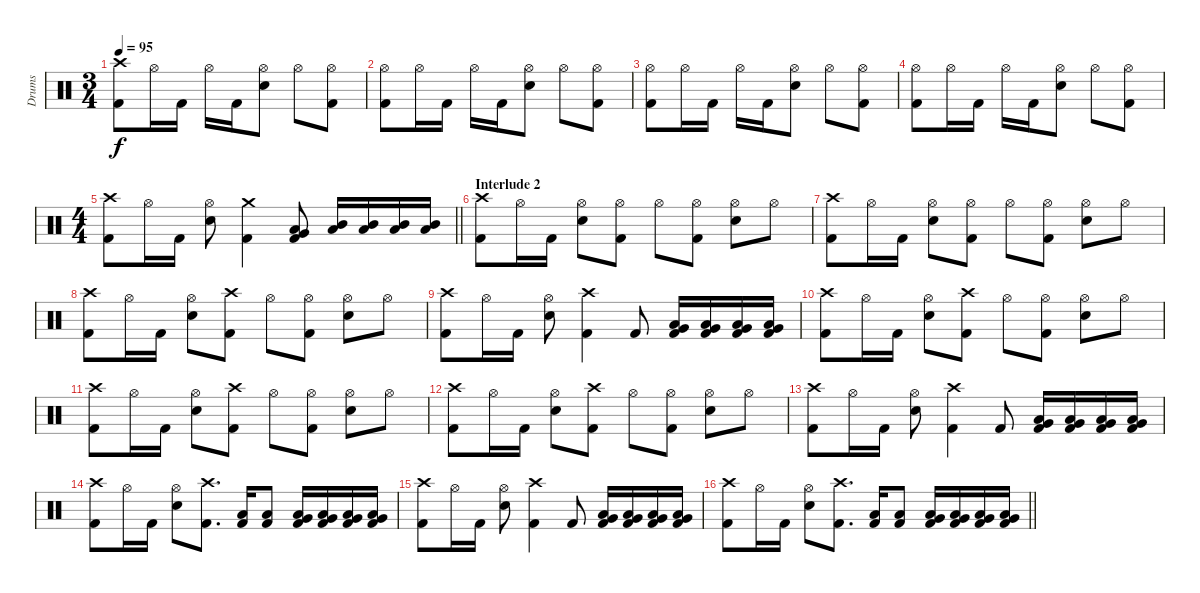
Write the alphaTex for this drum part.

\track ("Drums" "Drums") {instrument percussion}
\staff {score}
\articulation defaults
\ts (3 4)
\tempo 95
\clef neutral
\ks c
("Crash high (hit)" "Kick (hit) 2").8{dy f} "Hi-Hat (open)".16 "Kick (hit) 2".16 "Hi-Hat (open)".16 "Kick (hit) 2".16 ("Hi-Hat (open)" "Electric Snare (hit)").8 "Hi-Hat (open)".8 ("Hi-Hat (open)" "Kick (hit) 2").8 |
("Hi-Hat (open)" "Kick (hit) 2").8 "Hi-Hat (open)".16 "Kick (hit) 2".16 "Hi-Hat (open)".16 "Kick (hit) 2".16 ("Hi-Hat (open)" "Electric Snare (hit)").8 "Hi-Hat (open)".8 ("Hi-Hat (open)" "Kick (hit) 2").8 |
("Hi-Hat (open)" "Kick (hit) 2").8 "Hi-Hat (open)".16 "Kick (hit) 2".16 "Hi-Hat (open)".16 "Kick (hit) 2".16 ("Hi-Hat (open)" "Electric Snare (hit)").8 "Hi-Hat (open)".8 ("Hi-Hat (open)" "Kick (hit) 2").8 |
("Hi-Hat (open)" "Kick (hit) 2").8 "Hi-Hat (open)".16 "Kick (hit) 2".16 "Hi-Hat (open)".16 "Kick (hit) 2".16 ("Hi-Hat (open)" "Electric Snare (hit)").8 "Hi-Hat (open)".8 ("Hi-Hat (open)" "Kick (hit) 2").8 |
\ts (4 4)
\barLineRight lightlight
("Crash high (hit)" "Kick (hit) 2").8 "Hi-Hat (open)".16 "Kick (hit) 2".16 ("Hi-Hat (open)" "Electric Snare (hit)").8 ("Crash medium (hit)" "Kick (hit) 2").4 ("Low Tom (hit)" "Very Low Tom (hit)" "Kick (hit) 2").8 ("Mid Tom (hit)" "Low Tom (hit)").16 ("Mid Tom (hit)" "Low Tom (hit)").16 ("Mid Tom (hit)" "Low Tom (hit)").16 ("Mid Tom (hit)" "Low Tom (hit)").16 |
\section ("" "Interlude 2")
("Crash high (hit)" "Kick (hit) 2").8 "Hi-Hat (open)".16 "Kick (hit) 2".16 ("Electric Snare (hit)" "Hi-Hat (open)").8 ("Hi-Hat (open)" "Kick (hit) 2").8 "Hi-Hat (open)".8 ("Hi-Hat (open)" "Kick (hit) 2").8 ("Electric Snare (hit)" "Hi-Hat (open)").8 "Hi-Hat (open)".8 |
("Crash high (hit)" "Kick (hit) 2").8 "Hi-Hat (open)".16 "Kick (hit) 2".16 ("Electric Snare (hit)" "Hi-Hat (open)").8 ("Hi-Hat (open)" "Kick (hit) 2").8 "Hi-Hat (open)".8 ("Hi-Hat (open)" "Kick (hit) 2").8 ("Electric Snare (hit)" "Hi-Hat (open)").8 "Hi-Hat (open)".8 |
("Crash high (hit)" "Kick (hit) 2").8 "Hi-Hat (open)".16 "Kick (hit) 2".16 ("Electric Snare (hit)" "Hi-Hat (open)").8 ("Crash high (hit)" "Kick (hit) 2").8 "Hi-Hat (open)".8 ("Hi-Hat (open)" "Kick (hit) 2").8 ("Electric Snare (hit)" "Hi-Hat (open)").8 "Hi-Hat (open)".8 |
("Crash high (hit)" "Kick (hit) 2").8 "Hi-Hat (open)".16 "Kick (hit) 2".16 ("Electric Snare (hit)" "Hi-Hat (open)").8 ("Crash high (hit)" "Kick (hit) 2").4 "Kick (hit) 2".8 ("Low Tom (hit)" "Very Low Tom (hit)" "Kick (hit) 2").16 ("Low Tom (hit)" "Very Low Tom (hit)" "Kick (hit) 2").16 ("Low Tom (hit)" "Very Low Tom (hit)" "Kick (hit) 2").16 ("Low Tom (hit)" "Very Low Tom (hit)" "Kick (hit) 2").16 |
("Crash high (hit)" "Kick (hit) 2").8 "Hi-Hat (open)".16 "Kick (hit) 2".16 ("Electric Snare (hit)" "Hi-Hat (open)").8 ("Crash high (hit)" "Kick (hit) 2").8 "Hi-Hat (open)".8 ("Hi-Hat (open)" "Kick (hit) 2").8 ("Electric Snare (hit)" "Hi-Hat (open)").8 "Hi-Hat (open)".8 |
("Crash high (hit)" "Kick (hit) 2").8 "Hi-Hat (open)".16 "Kick (hit) 2".16 ("Electric Snare (hit)" "Hi-Hat (open)").8 ("Crash high (hit)" "Kick (hit) 2").8 "Hi-Hat (open)".8 ("Hi-Hat (open)" "Kick (hit) 2").8 ("Electric Snare (hit)" "Hi-Hat (open)").8 "Hi-Hat (open)".8 |
("Crash high (hit)" "Kick (hit) 2").8 "Hi-Hat (open)".16 "Kick (hit) 2".16 ("Electric Snare (hit)" "Hi-Hat (open)").8 ("Crash high (hit)" "Kick (hit) 2").8 "Hi-Hat (open)".8 ("Hi-Hat (open)" "Kick (hit) 2").8 ("Electric Snare (hit)" "Hi-Hat (open)").8 "Hi-Hat (open)".8 |
("Crash high (hit)" "Kick (hit) 2").8 "Hi-Hat (open)".16 "Kick (hit) 2".16 ("Electric Snare (hit)" "Hi-Hat (open)").8 ("Crash high (hit)" "Kick (hit) 2").4 "Kick (hit) 2".8 ("Low Tom (hit)" "Very Low Tom (hit)" "Kick (hit) 2").16 ("Low Tom (hit)" "Very Low Tom (hit)" "Kick (hit) 2").16 ("Low Tom (hit)" "Very Low Tom (hit)" "Kick (hit) 2").16 ("Low Tom (hit)" "Very Low Tom (hit)" "Kick (hit) 2").16 |
("Crash high (hit)" "Kick (hit) 2").8 "Hi-Hat (open)".16 "Kick (hit) 2".16 ("Electric Snare (hit)" "Hi-Hat (open)").8 ("Crash high (hit)" "Kick (hit) 2").8{d} ("Low Tom (hit)" "Kick (hit) 2").16 ("Low Tom (hit)" "Kick (hit) 2").8 ("Low Tom (hit)" "Very Low Tom (hit)" "Kick (hit) 2").16 ("Low Tom (hit)" "Very Low Tom (hit)" "Kick (hit) 2").16 ("Low Tom (hit)" "Very Low Tom (hit)" "Kick (hit) 2").16 ("Low Tom (hit)" "Very Low Tom (hit)" "Kick (hit) 2").16 |
("Crash high (hit)" "Kick (hit) 2").8 "Hi-Hat (open)".16 "Kick (hit) 2".16 ("Electric Snare (hit)" "Hi-Hat (open)").8 ("Crash high (hit)" "Kick (hit) 2").4 "Kick (hit) 2".8 ("Low Tom (hit)" "Very Low Tom (hit)" "Kick (hit) 2").16 ("Low Tom (hit)" "Very Low Tom (hit)" "Kick (hit) 2").16 ("Low Tom (hit)" "Very Low Tom (hit)" "Kick (hit) 2").16 ("Low Tom (hit)" "Very Low Tom (hit)" "Kick (hit) 2").16 |
\barLineRight lightlight
("Crash high (hit)" "Kick (hit) 2").8 "Hi-Hat (open)".16 "Kick (hit) 2".16 ("Electric Snare (hit)" "Hi-Hat (open)").8 ("Crash high (hit)" "Kick (hit) 2").8{d} ("Low Tom (hit)" "Kick (hit) 2").16 ("Low Tom (hit)" "Kick (hit) 2").8 ("Low Tom (hit)" "Very Low Tom (hit)" "Kick (hit) 2").16 ("Low Tom (hit)" "Very Low Tom (hit)" "Kick (hit) 2").16 ("Low Tom (hit)" "Very Low Tom (hit)" "Kick (hit) 2").16 ("Low Tom (hit)" "Very Low Tom (hit)" "Kick (hit) 2").16
